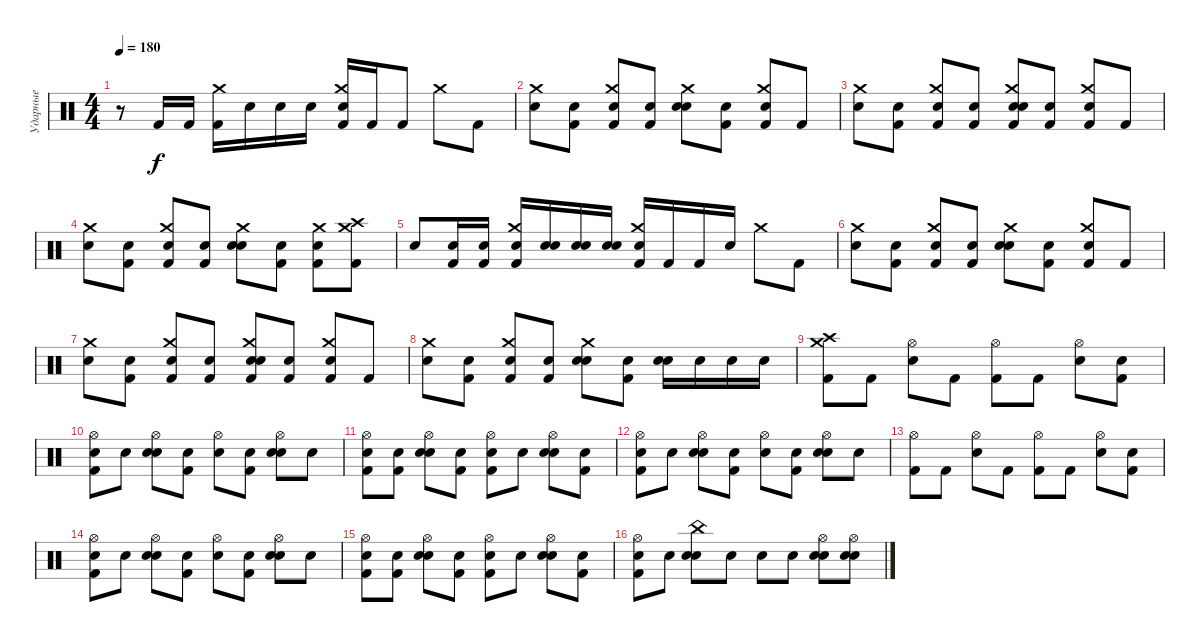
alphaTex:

\track ("Ударные" "Ударные") {instrument percussion}
\staff {score}
\articulation defaults
\ts (4 4)
\tempo 180
\clef neutral
\ks c
r.8{dy f} "Kick (hit) 2".16 "Kick (hit) 2".16 ("Crash medium (hit)" "Kick (hit) 2").16 "Snare (hit)".16 "Snare (hit)".16 "Snare (hit)".16 ("Crash medium (hit)" "Electric Snare (hit)" "Kick (hit) 2").16 "Kick (hit) 2".16 "Kick (hit) 2".8 "Crash medium (hit)".8 "Kick (hit) 2".8 |
("Snare (hit)" "Crash medium (hit)").8 ("Snare (hit)" "Kick (hit) 2").8 ("Snare (hit)" "Crash medium (hit)" "Kick (hit) 2").8 ("Snare (hit)" "Kick (hit) 2").8 ("Snare (hit)" "Crash medium (hit)" "Electric Snare (hit)").8 ("Snare (hit)" "Kick (hit) 2").8 ("Snare (hit)" "Crash medium (hit)" "Kick (hit) 2").8 "Kick (hit) 2".8 |
("Snare (hit)" "Crash medium (hit)").8 ("Snare (hit)" "Kick (hit) 2").8 ("Snare (hit)" "Crash medium (hit)" "Kick (hit) 2").8 ("Snare (hit)" "Kick (hit) 2").8 ("Snare (hit)" "Crash medium (hit)" "Electric Snare (hit)" "Kick (hit) 2").8 ("Snare (hit)" "Kick (hit) 2").8 ("Snare (hit)" "Crash medium (hit)" "Kick (hit) 2").8 "Kick (hit) 2".8 |
("Snare (hit)" "Crash medium (hit)").8 ("Snare (hit)" "Kick (hit) 2").8 ("Snare (hit)" "Crash medium (hit)" "Kick (hit) 2").8 ("Snare (hit)" "Kick (hit) 2").8 ("Snare (hit)" "Crash medium (hit)" "Electric Snare (hit)").8 ("Snare (hit)" "Kick (hit) 2").8 ("Snare (hit)" "Crash medium (hit)" "Kick (hit) 2").8 ("Crash medium (hit)" "Crash high (hit)" "Kick (hit) 2").8 |
"Snare (hit)".8 ("Snare (hit)" "Kick (hit) 2").16 ("Snare (hit)" "Kick (hit) 2").16 ("Snare (hit)" "Crash medium (hit)" "Kick (hit) 2").16 ("Snare (hit)" "Snare (hit)").16 ("Snare (hit)" "Snare (hit)").16 ("Snare (hit)" "Snare (hit)").16 ("Crash medium (hit)" "Electric Snare (hit)" "Kick (hit) 2").16 "Kick (hit) 2".16 "Kick (hit) 2".16 "Snare (hit)".16 "Crash medium (hit)".8 "Kick (hit) 2".8 |
("Snare (hit)" "Crash medium (hit)").8 ("Snare (hit)" "Kick (hit) 2").8 ("Snare (hit)" "Crash medium (hit)" "Kick (hit) 2").8 ("Snare (hit)" "Kick (hit) 2").8 ("Snare (hit)" "Crash medium (hit)" "Electric Snare (hit)").8 ("Snare (hit)" "Kick (hit) 2").8 ("Snare (hit)" "Crash medium (hit)" "Kick (hit) 2").8 "Kick (hit) 2".8 |
("Snare (hit)" "Crash medium (hit)").8 ("Snare (hit)" "Kick (hit) 2").8 ("Snare (hit)" "Crash medium (hit)" "Kick (hit) 2").8 ("Snare (hit)" "Kick (hit) 2").8 ("Snare (hit)" "Crash medium (hit)" "Electric Snare (hit)" "Kick (hit) 2").8 ("Snare (hit)" "Kick (hit) 2").8 ("Snare (hit)" "Crash medium (hit)" "Kick (hit) 2").8 "Kick (hit) 2".8 |
("Snare (hit)" "Crash medium (hit)").8 ("Snare (hit)" "Kick (hit) 2").8 ("Snare (hit)" "Crash medium (hit)" "Kick (hit) 2").8 ("Snare (hit)" "Kick (hit) 2").8 ("Snare (hit)" "Crash medium (hit)" "Electric Snare (hit)").8 ("Snare (hit)" "Kick (hit) 2").8 ("Snare (hit)" "Electric Snare (hit)").16 "Electric Snare (hit)".16 "Electric Snare (hit)".16 "Electric Snare (hit)".16 |
("Crash high (hit)" "Crash medium (hit)" "Kick (hit) 2").8 "Kick (hit) 2".8 ("Hi-Hat (open)" "Electric Snare (hit)").8 "Kick (hit) 2".8 ("Hi-Hat (open)" "Kick (hit) 2").8 "Kick (hit) 2".8 ("Hi-Hat (open)" "Electric Snare (hit)").8 ("Snare (hit)" "Kick (hit) 2").8 |
("Snare (hit)" "Hi-Hat (open)" "Kick (hit) 2").8 "Snare (hit)".8 ("Snare (hit)" "Hi-Hat (open)" "Electric Snare (hit)").8 ("Snare (hit)" "Kick (hit) 2").8 ("Snare (hit)" "Hi-Hat (open)").8 ("Snare (hit)" "Kick (hit) 2").8 ("Snare (hit)" "Hi-Hat (open)" "Electric Snare (hit)").8 "Snare (hit)".8 |
("Snare (hit)" "Hi-Hat (open)" "Kick (hit) 2").8 ("Snare (hit)" "Kick (hit) 2").8 ("Snare (hit)" "Hi-Hat (open)" "Electric Snare (hit)").8 ("Snare (hit)" "Kick (hit) 2").8 ("Snare (hit)" "Hi-Hat (open)" "Kick (hit) 2").8 "Snare (hit)".8 ("Snare (hit)" "Hi-Hat (open)" "Electric Snare (hit)").8 ("Snare (hit)" "Kick (hit) 2").8 |
("Snare (hit)" "Hi-Hat (open)" "Kick (hit) 2").8 "Snare (hit)".8 ("Snare (hit)" "Hi-Hat (open)" "Electric Snare (hit)").8 ("Snare (hit)" "Kick (hit) 2").8 ("Snare (hit)" "Hi-Hat (open)").8 ("Snare (hit)" "Kick (hit) 2").8 ("Snare (hit)" "Hi-Hat (open)" "Electric Snare (hit)").8 "Snare (hit)".8 |
("Hi-Hat (open)" "Kick (hit) 2").8 "Kick (hit) 2".8 ("Hi-Hat (open)" "Electric Snare (hit)").8 "Kick (hit) 2".8 ("Hi-Hat (open)" "Kick (hit) 2").8 "Kick (hit) 2".8 ("Hi-Hat (open)" "Electric Snare (hit)").8 ("Snare (hit)" "Kick (hit) 2").8 |
("Snare (hit)" "Hi-Hat (open)" "Kick (hit) 2").8 "Snare (hit)".8 ("Snare (hit)" "Hi-Hat (open)" "Electric Snare (hit)").8 ("Snare (hit)" "Kick (hit) 2").8 ("Snare (hit)" "Hi-Hat (open)").8 ("Snare (hit)" "Kick (hit) 2").8 ("Snare (hit)" "Hi-Hat (open)" "Electric Snare (hit)").8 "Snare (hit)".8 |
("Snare (hit)" "Hi-Hat (open)" "Kick (hit) 2").8 ("Snare (hit)" "Kick (hit) 2").8 ("Snare (hit)" "Hi-Hat (open)" "Electric Snare (hit)").8 ("Snare (hit)" "Kick (hit) 2").8 ("Snare (hit)" "Hi-Hat (open)" "Kick (hit) 2").8 "Snare (hit)".8 ("Snare (hit)" "Hi-Hat (open)" "Electric Snare (hit)").8 ("Snare (hit)" "Kick (hit) 2").8 |
("Snare (hit)" "Hi-Hat (open)" "Kick (hit) 2").8 "Snare (hit)".8 ("Snare (hit)" "China (hit)" "Electric Snare (hit)").8 "Snare (hit)".8 "Snare (hit)".8 "Snare (hit)".8 ("Snare (hit)" "Hi-Hat (open)" "Electric Snare (hit)").8 ("Snare (hit)" "Hi-Hat (open)" "Electric Snare (hit)").8
